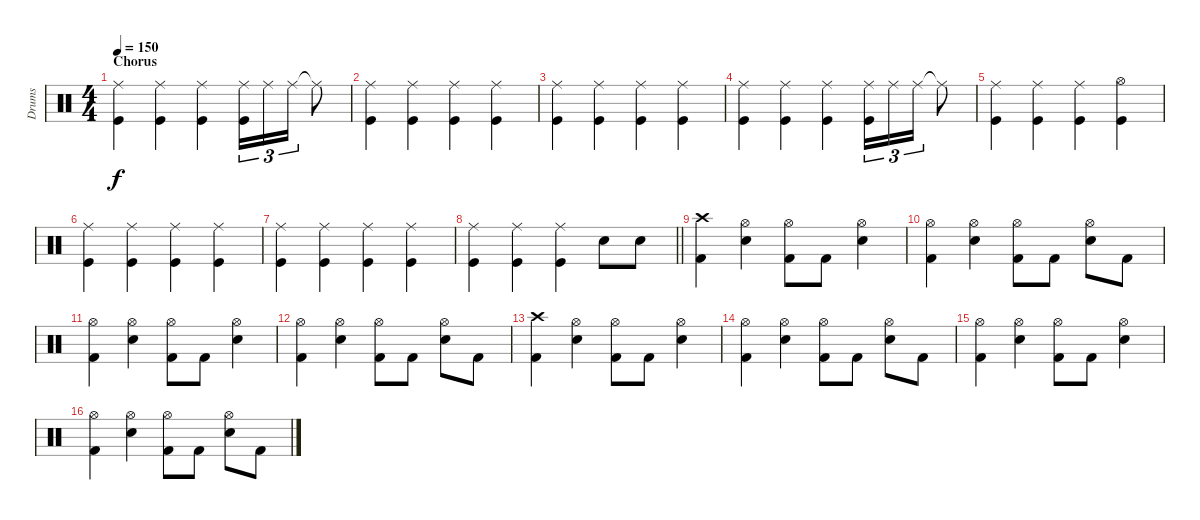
\track ("Drums" "Drums") {instrument percussion}
\staff {score}
\articulation defaults
\ts (4 4)
\section ("" "Chorus")
\tempo 150
\clef neutral
\ks c
("Ride (middle)" "Kick (hit)").4{dy f} ("Ride (middle)" "Kick (hit)").4 ("Ride (middle)" "Kick (hit)").4 ("Ride (middle)" "Kick (hit)").16{tu (3 2)} "Ride (middle)".16{tu (3 2)} "Ride (middle)".16{tu (3 2)} "Ride (middle)"{t}.8 |
("Ride (middle)" "Kick (hit)").4 ("Ride (middle)" "Kick (hit)").4 ("Ride (middle)" "Kick (hit)").4 ("Ride (middle)" "Kick (hit)").4 |
("Ride (middle)" "Kick (hit)").4 ("Ride (middle)" "Kick (hit)").4 ("Ride (middle)" "Kick (hit)").4 ("Ride (middle)" "Kick (hit)").4 |
("Ride (middle)" "Kick (hit)").4 ("Ride (middle)" "Kick (hit)").4 ("Ride (middle)" "Kick (hit)").4 ("Ride (middle)" "Kick (hit)").16{tu (3 2)} "Ride (middle)".16{tu (3 2)} "Ride (middle)".16{tu (3 2)} "Ride (middle)"{t}.8 |
("Ride (middle)" "Kick (hit)").4 ("Ride (middle)" "Kick (hit)").4 ("Ride (middle)" "Kick (hit)").4 ("Hi-Hat (open)" "Kick (hit)").4 |
("Ride (middle)" "Kick (hit)").4 ("Ride (middle)" "Kick (hit)").4 ("Ride (middle)" "Kick (hit)").4 ("Ride (middle)" "Kick (hit)").4 |
("Ride (middle)" "Kick (hit)").4 ("Ride (middle)" "Kick (hit)").4 ("Ride (middle)" "Kick (hit)").4 ("Ride (middle)" "Kick (hit)").4 |
\barLineRight lightlight
("Ride (middle)" "Kick (hit)").4 ("Ride (middle)" "Kick (hit)").4 ("Ride (middle)" "Kick (hit)").4 "Electric Snare (hit)".8 "Electric Snare (hit)".8 |
("Crash high (hit)" "Kick (hit) 2").4 ("Hi-Hat (open)" "Electric Snare (hit)").4 ("Hi-Hat (open)" "Kick (hit) 2").8 "Kick (hit) 2".8 ("Hi-Hat (open)" "Electric Snare (hit)").4 |
("Hi-Hat (open)" "Kick (hit) 2").4 ("Hi-Hat (open)" "Electric Snare (hit)").4 ("Hi-Hat (open)" "Kick (hit) 2").8 "Kick (hit) 2".8 ("Hi-Hat (open)" "Electric Snare (hit)").8 "Kick (hit) 2".8 |
("Hi-Hat (open)" "Kick (hit) 2").4 ("Hi-Hat (open)" "Electric Snare (hit)").4 ("Hi-Hat (open)" "Kick (hit) 2").8 "Kick (hit) 2".8 ("Hi-Hat (open)" "Electric Snare (hit)").4 |
("Hi-Hat (open)" "Kick (hit) 2").4 ("Hi-Hat (open)" "Electric Snare (hit)").4 ("Hi-Hat (open)" "Kick (hit) 2").8 "Kick (hit) 2".8 ("Hi-Hat (open)" "Electric Snare (hit)").8 "Kick (hit) 2".8 |
("Crash high (hit)" "Kick (hit) 2").4 ("Hi-Hat (open)" "Electric Snare (hit)").4 ("Hi-Hat (open)" "Kick (hit) 2").8 "Kick (hit) 2".8 ("Hi-Hat (open)" "Electric Snare (hit)").4 |
("Hi-Hat (open)" "Kick (hit) 2").4 ("Hi-Hat (open)" "Electric Snare (hit)").4 ("Hi-Hat (open)" "Kick (hit) 2").8 "Kick (hit) 2".8 ("Hi-Hat (open)" "Electric Snare (hit)").8 "Kick (hit) 2".8 |
("Hi-Hat (open)" "Kick (hit) 2").4 ("Hi-Hat (open)" "Electric Snare (hit)").4 ("Hi-Hat (open)" "Kick (hit) 2").8 "Kick (hit) 2".8 ("Hi-Hat (open)" "Electric Snare (hit)").4 |
("Hi-Hat (open)" "Kick (hit) 2").4 ("Hi-Hat (open)" "Electric Snare (hit)").4 ("Hi-Hat (open)" "Kick (hit) 2").8 "Kick (hit) 2".8 ("Hi-Hat (open)" "Electric Snare (hit)").8 "Kick (hit) 2".8
